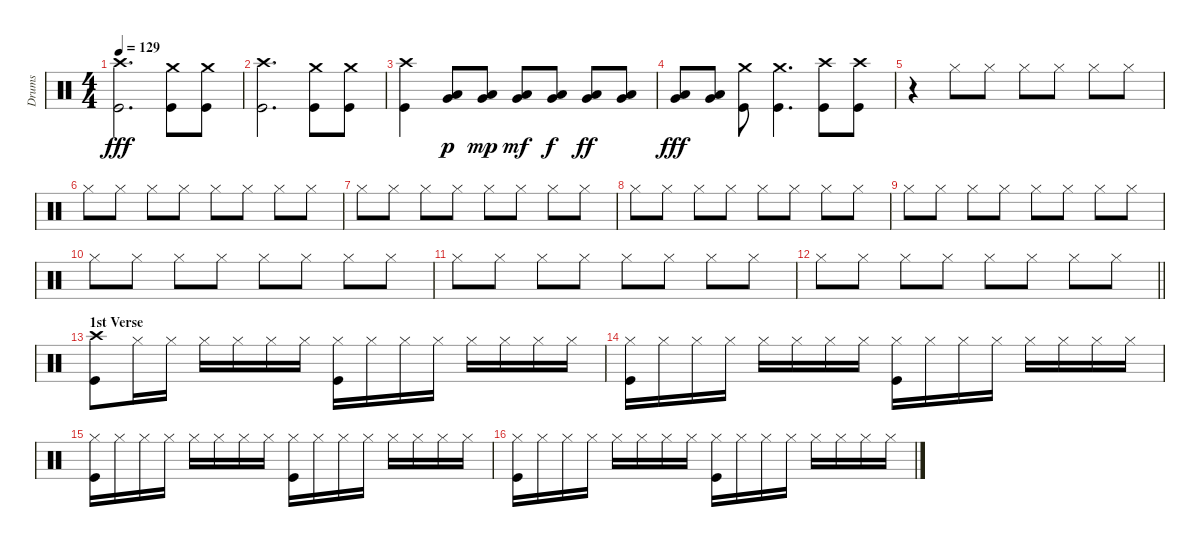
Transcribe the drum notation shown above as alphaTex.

\track ("Drums" "Drums") {instrument percussion}
\staff {score}
\articulation defaults
\ts (4 4)
\tempo 129
\clef neutral
\ks c
("Crash high (hit)" "Kick (hit)").2{d dy fff} ("Crash medium (hit)" "Kick (hit)").8 ("Crash medium (hit)" "Kick (hit)").8 |
("Crash high (hit)" "Kick (hit)").2{d} ("Crash medium (hit)" "Kick (hit)").8 ("Crash medium (hit)" "Kick (hit)").8 |
("Crash high (hit)" "Kick (hit)").4 ("Very Low Tom (hit)" "Low Floor Tom (hit)").8{dy p} ("Very Low Tom (hit)" "Low Floor Tom (hit)").8{dy mp} ("Very Low Tom (hit)" "Low Floor Tom (hit)").8{dy mf} ("Very Low Tom (hit)" "Low Floor Tom (hit)").8{dy f} ("Very Low Tom (hit)" "Low Floor Tom (hit)").8{dy ff} ("Very Low Tom (hit)" "Low Floor Tom (hit)").8 |
("Very Low Tom (hit)" "Low Floor Tom (hit)").8{dy fff} ("Very Low Tom (hit)" "Low Floor Tom (hit)").8 ("Crash medium (hit)" "Kick (hit)").8 ("Crash medium (hit)" "Kick (hit)").4{d} ("Crash high (hit)" "Kick (hit)").8 ("Crash high (hit)" "Kick (hit)").8 |
r.4 "Hi-Hat (closed)".8 "Hi-Hat (closed)".8 "Hi-Hat (closed)".8 "Hi-Hat (closed)".8 "Hi-Hat (closed)".8 "Hi-Hat (closed)".8 |
"Hi-Hat (closed)".8 "Hi-Hat (closed)".8 "Hi-Hat (closed)".8 "Hi-Hat (closed)".8 "Hi-Hat (closed)".8 "Hi-Hat (closed)".8 "Hi-Hat (closed)".8 "Hi-Hat (closed)".8 |
"Hi-Hat (closed)".8 "Hi-Hat (closed)".8 "Hi-Hat (closed)".8 "Hi-Hat (closed)".8 "Hi-Hat (closed)".8 "Hi-Hat (closed)".8 "Hi-Hat (closed)".8 "Hi-Hat (closed)".8 |
"Hi-Hat (closed)".8 "Hi-Hat (closed)".8 "Hi-Hat (closed)".8 "Hi-Hat (closed)".8 "Hi-Hat (closed)".8 "Hi-Hat (closed)".8 "Hi-Hat (closed)".8 "Hi-Hat (closed)".8 |
"Hi-Hat (closed)".8 "Hi-Hat (closed)".8 "Hi-Hat (closed)".8 "Hi-Hat (closed)".8 "Hi-Hat (closed)".8 "Hi-Hat (closed)".8 "Hi-Hat (closed)".8 "Hi-Hat (closed)".8 |
"Hi-Hat (closed)".8 "Hi-Hat (closed)".8 "Hi-Hat (closed)".8 "Hi-Hat (closed)".8 "Hi-Hat (closed)".8 "Hi-Hat (closed)".8 "Hi-Hat (closed)".8 "Hi-Hat (closed)".8 |
"Hi-Hat (closed)".8 "Hi-Hat (closed)".8 "Hi-Hat (closed)".8 "Hi-Hat (closed)".8 "Hi-Hat (closed)".8 "Hi-Hat (closed)".8 "Hi-Hat (closed)".8 "Hi-Hat (closed)".8 |
\barLineRight lightlight "Hi-Hat (closed)".8 "Hi-Hat (closed)".8 "Hi-Hat (closed)".8 "Hi-Hat (closed)".8 "Hi-Hat (closed)".8 "Hi-Hat (closed)".8 "Hi-Hat (closed)".8 "Hi-Hat (closed)".8
|
\section ("" "1st Verse")
("Crash high (hit)" "Kick (hit)").8 "Hi-Hat (closed)".16 "Hi-Hat (closed)".16 "Hi-Hat (closed)".16 "Hi-Hat (closed)".16 "Hi-Hat (closed)".16 "Hi-Hat (closed)".16 ("Hi-Hat (closed)" "Kick (hit)").16 "Hi-Hat (closed)".16 "Hi-Hat (closed)".16 "Hi-Hat (closed)".16 "Hi-Hat (closed)".16 "Hi-Hat (closed)".16 "Hi-Hat (closed)".16 "Hi-Hat (closed)".16 |
("Hi-Hat (closed)" "Kick (hit)").16 "Hi-Hat (closed)".16 "Hi-Hat (closed)".16 "Hi-Hat (closed)".16 "Hi-Hat (closed)".16 "Hi-Hat (closed)".16 "Hi-Hat (closed)".16 "Hi-Hat (closed)".16 ("Hi-Hat (closed)" "Kick (hit)").16 "Hi-Hat (closed)".16 "Hi-Hat (closed)".16 "Hi-Hat (closed)".16 "Hi-Hat (closed)".16 "Hi-Hat (closed)".16 "Hi-Hat (closed)".16 "Hi-Hat (closed)".16 |
("Hi-Hat (closed)" "Kick (hit)").16 "Hi-Hat (closed)".16 "Hi-Hat (closed)".16 "Hi-Hat (closed)".16 "Hi-Hat (closed)".16 "Hi-Hat (closed)".16 "Hi-Hat (closed)".16 "Hi-Hat (closed)".16 ("Hi-Hat (closed)" "Kick (hit)").16 "Hi-Hat (closed)".16 "Hi-Hat (closed)".16 "Hi-Hat (closed)".16 "Hi-Hat (closed)".16 "Hi-Hat (closed)".16 "Hi-Hat (closed)".16 "Hi-Hat (closed)".16 |
("Hi-Hat (closed)" "Kick (hit)").16 "Hi-Hat (closed)".16 "Hi-Hat (closed)".16 "Hi-Hat (closed)".16 "Hi-Hat (closed)".16 "Hi-Hat (closed)".16 "Hi-Hat (closed)".16 "Hi-Hat (closed)".16 ("Hi-Hat (closed)" "Kick (hit)").16 "Hi-Hat (closed)".16 "Hi-Hat (closed)".16 "Hi-Hat (closed)".16 "Hi-Hat (closed)".16 "Hi-Hat (closed)".16 "Hi-Hat (closed)".16 "Hi-Hat (closed)".16
